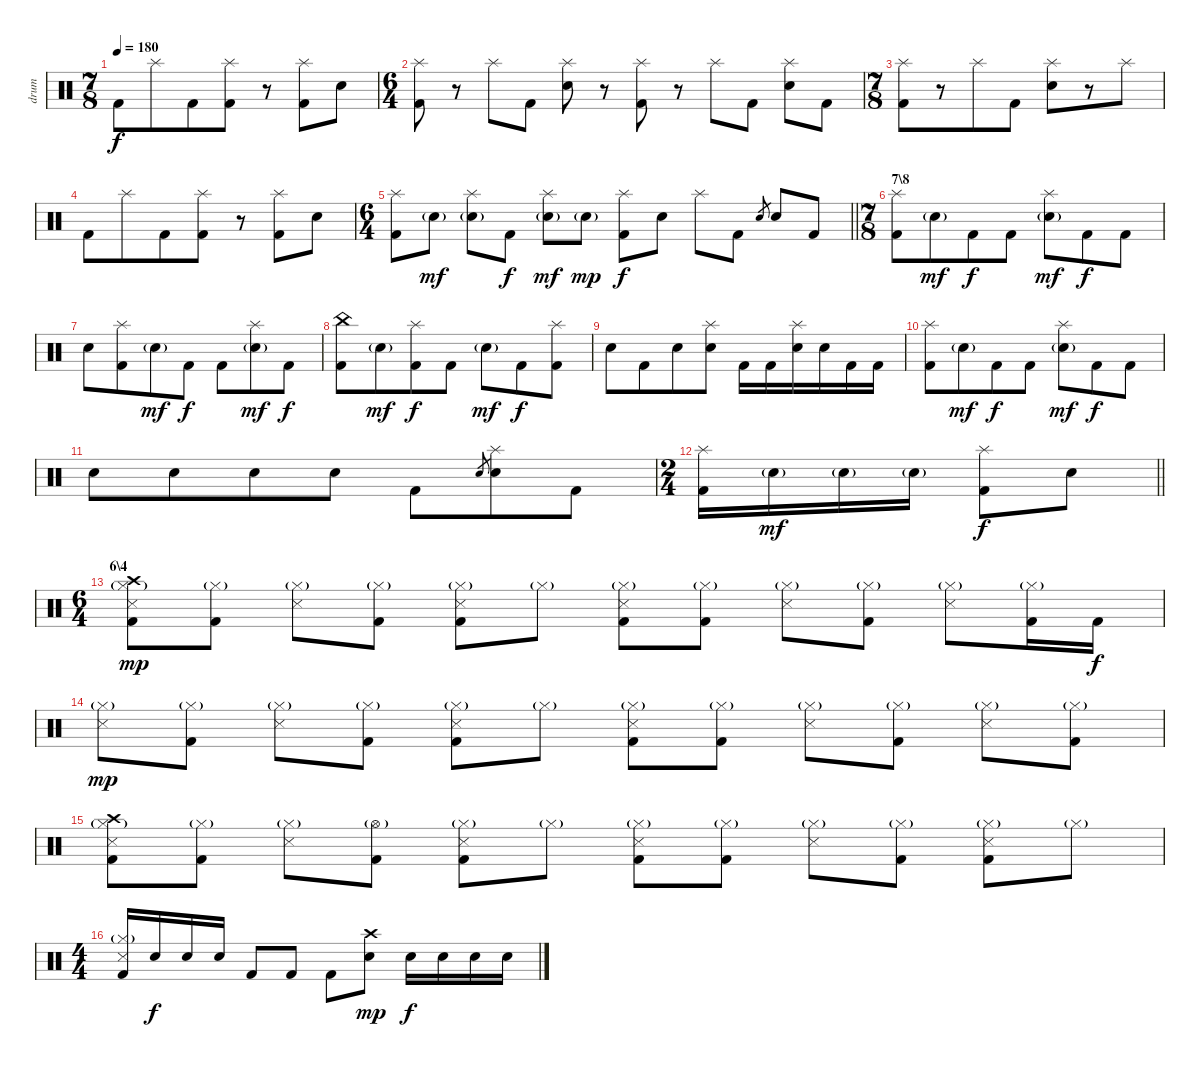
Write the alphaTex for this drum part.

\track ("drum" "drum") {instrument percussion}
\staff {score}
\articulation defaults
\ts (7 8)
\tempo 180
\clef neutral
\ks c "Kick (hit) 2".8{dy f} "Splash (hit)".8 "Kick (hit) 2".8
("Splash (hit)" "Kick (hit) 2").8 r.8 ("Splash (hit)" "Kick (hit) 2").8 "Electric Snare (hit)".8 |
\ts (6 4)
("Splash (hit)" "Kick (hit) 2").8 r.8 "Splash (hit)".8 "Kick (hit) 2".8 ("Splash (hit)" "Electric Snare (hit)").8 r.8 ("Splash (hit)" "Kick (hit) 2").8 r.8 "Splash (hit)".8 "Kick (hit) 2".8 ("Splash (hit)" "Electric Snare (hit)").8 "Kick (hit) 2".8 |
\ts (7 8)
("Splash (hit)" "Kick (hit) 2").8 r.8 "Splash (hit)".8 "Kick (hit) 2".8 ("Splash (hit)" "Electric Snare (hit)").8 r.8 "Splash (hit)".8 |
"Kick (hit) 2".8 "Splash (hit)".8 "Kick (hit) 2".8 ("Splash (hit)" "Kick (hit) 2").8 r.8 ("Splash (hit)" "Kick (hit) 2").8 "Electric Snare (hit)".8 |
\ts (6 4)
\barLineRight lightlight
("Splash (hit)" "Kick (hit) 2").8 "Electric Snare (hit)"{g}.8{dy mf} ("Splash (hit)" "Electric Snare (hit)"{g}).8 "Kick (hit) 2".8{dy f} ("Splash (hit)" "Electric Snare (hit)"{g}).8{dy mf} "Electric Snare (hit)"{g}.8{dy mp} ("Splash (hit)" "Kick (hit) 2").8{dy f} "Electric Snare (hit)".8 "Splash (hit)".8 "Kick (hit) 2".8 "Electric Snare (hit)".8{gr} "Electric Snare (hit)".8 "Kick (hit) 2".8 |
\ts (7 8)
\section ("" "7\\8")
("Splash (hit)" "Kick (hit) 2").8 "Electric Snare (hit)"{g}.8{dy mf} "Kick (hit) 2".8{dy f} "Kick (hit) 2".8 ("Splash (hit)" "Electric Snare (hit)"{g}).8{dy mf} "Kick (hit) 2".8{dy f} "Kick (hit) 2".8 |
"Electric Snare (hit)".8 ("Splash (hit)" "Kick (hit) 2").8 "Electric Snare (hit)"{g}.8{dy mf} "Kick (hit) 2".8{dy f} "Kick (hit) 2".8 ("Splash (hit)" "Electric Snare (hit)"{g}).8{dy mf} "Kick (hit) 2".8{dy f} |
("China (hit)" "Kick (hit) 2").8 "Electric Snare (hit)"{g}.8{dy mf} ("Splash (hit)" "Kick (hit) 2").8{dy f} "Kick (hit) 2".8 "Electric Snare (hit)"{g}.8{dy mf} "Kick (hit) 2".8{dy f} ("Splash (hit)" "Kick (hit) 2").8 |
"Electric Snare (hit)".8 "Kick (hit) 2".8 "Electric Snare (hit)".8 ("Splash (hit)" "Electric Snare (hit)").8 "Kick (hit) 2".16 "Kick (hit) 2".16 ("Splash (hit)" "Electric Snare (hit)").16 "Electric Snare (hit)".16 "Kick (hit) 2".16 "Kick (hit) 2".16 |
("Splash (hit)" "Kick (hit) 2").8 "Electric Snare (hit)"{g}.8{dy mf} "Kick (hit) 2".8{dy f} "Kick (hit) 2".8 ("Splash (hit)" "Electric Snare (hit)"{g}).8{dy mf} "Kick (hit) 2".8{dy f} "Kick (hit) 2".8 |
"Electric Snare (hit)".8 "Electric Snare (hit)".8 "Electric Snare (hit)".8 "Electric Snare (hit)".8 "Kick (hit) 2".8 "Electric Snare (hit)".8{gr} ("Splash (hit)" "Electric Snare (hit)").8 "Kick (hit) 2".8 |
\ts (2 4)
\barLineRight lightlight
("Splash (hit)" "Kick (hit) 2").16 "Electric Snare (hit)"{g}.16{dy mf} "Electric Snare (hit)"{g}.16 "Electric Snare (hit)"{g}.16 ("Splash (hit)" "Kick (hit) 2").8{dy f} "Electric Snare (hit)".8 |
\ts (6 4)
\section ("" "6\\4")
("Crash high (hit)" "Hi-Hat (closed)"{g} "Snare (side stick) 3" "Kick (hit) 2").8{dy mp} ("Hi-Hat (closed)"{g} "Kick (hit) 2").8 ("Hi-Hat (closed)"{g} "Snare (side stick) 3").8 ("Hi-Hat (closed)"{g} "Kick (hit) 2").8 ("Hi-Hat (closed)"{g} "Snare (side stick) 3" "Kick (hit) 2").8 "Hi-Hat (closed)"{g}.8 ("Hi-Hat (closed)"{g} "Snare (side stick) 3" "Kick (hit) 2").8 ("Hi-Hat (closed)"{g} "Kick (hit) 2").8 ("Hi-Hat (closed)"{g} "Snare (side stick) 3").8 ("Hi-Hat (closed)"{g} "Kick (hit) 2").8 ("Hi-Hat (closed)"{g} "Snare (side stick) 3").8 ("Hi-Hat (closed)"{g} "Kick (hit) 2").16 "Kick (hit) 2".16{dy f} |
("Hi-Hat (closed)"{g} "Snare (side stick) 3").8{dy mp} ("Hi-Hat (closed)"{g} "Kick (hit) 2").8 ("Hi-Hat (closed)"{g} "Snare (side stick) 3").8 ("Hi-Hat (closed)"{g} "Kick (hit) 2").8 ("Hi-Hat (closed)"{g} "Snare (side stick) 3" "Kick (hit) 2").8 "Hi-Hat (closed)"{g}.8 ("Hi-Hat (closed)"{g} "Snare (side stick) 3" "Kick (hit) 2").8 ("Hi-Hat (closed)"{g} "Kick (hit) 2").8 ("Hi-Hat (closed)"{g} "Snare (side stick) 3").8 ("Hi-Hat (closed)"{g} "Kick (hit) 2").8 ("Hi-Hat (closed)"{g} "Snare (side stick) 3").8 ("Hi-Hat (closed)"{g} "Kick (hit) 2").8 |
("Crash high (hit)" "Hi-Hat (closed)"{g} "Snare (side stick) 3" "Kick (hit) 2").8 ("Hi-Hat (closed)"{g} "Kick (hit) 2").8 ("Hi-Hat (closed)"{g} "Snare (side stick) 3").8 ("Hi-Hat (open)"{g} "Kick (hit) 2").8 ("Hi-Hat (closed)"{g} "Snare (side stick) 3" "Kick (hit) 2").8 "Hi-Hat (closed)"{g}.8 ("Hi-Hat (closed)"{g} "Snare (side stick) 3" "Kick (hit) 2").8 ("Hi-Hat (closed)"{g} "Kick (hit) 2").8 ("Hi-Hat (closed)"{g} "Snare (side stick) 3").8 ("Hi-Hat (closed)"{g} "Kick (hit) 2").8 ("Hi-Hat (closed)"{g} "Snare (side stick) 3" "Kick (hit) 2").8 "Hi-Hat (closed)"{g}.8 |
\ts (4 4)
("Hi-Hat (closed)"{g} "Snare (side stick) 3" "Kick (hit) 2").16 "Electric Snare (hit)".16{dy f} "Electric Snare (hit)".16 "Electric Snare (hit)".16 "Kick (hit) 2".8 "Kick (hit) 2".8 "Kick (hit) 2".8 ("Crash high (hit)" "Electric Snare (hit)").8{dy mp} "Electric Snare (hit)".16{dy f} "Electric Snare (hit)".16 "Electric Snare (hit)".16 "Electric Snare (hit)".16
